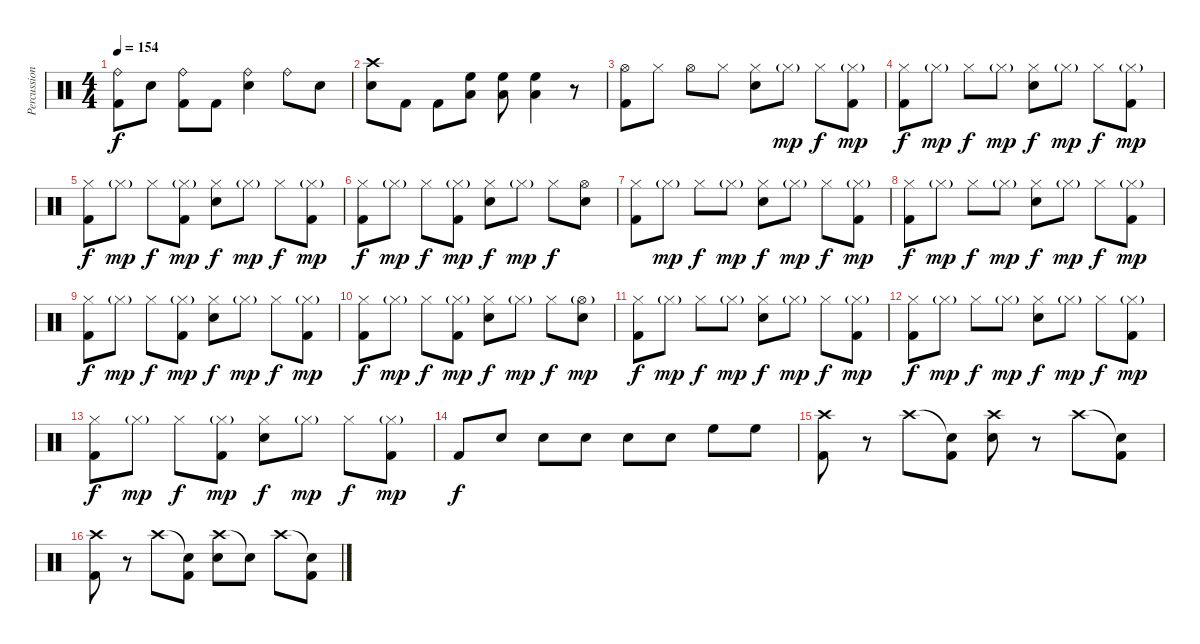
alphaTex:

\track ("Percussion" "Percussion") {instrument percussion}
\staff {score}
\articulation defaults
\ts (4 4)
\tempo 154
\clef neutral
\ks c
("Ride (bell)" "Kick (hit) 2").8{dy f} "Snare (hit) 2".8 ("Ride (bell)" "Kick (hit) 2").8 "Kick (hit) 2".8 ("Ride (bell)" "Snare (hit) 2").4 "Ride (bell)".8 "Snare (hit) 2".8 |
("Crash high (hit)" "Snare (hit) 2").8 "Kick (hit) 2".8 "Kick (hit) 2".8 ("High Floor Tom (hit)" "Low Tom (hit)").8 ("High Floor Tom (hit)" "Low Tom (hit)").8 ("High Floor Tom (hit)" "Low Tom (hit)").4 r.8 |
("Hi-Hat (open)" "Kick (hit) 2").8 "Hi-Hat (closed)".8 "Hi-Hat (open)".8 "Hi-Hat (closed)".8 ("Hi-Hat (closed)" "Snare (hit) 2").8 "Hi-Hat (closed)"{g}.8{dy mp} "Hi-Hat (closed)".8{dy f} ("Hi-Hat (closed)"{g} "Kick (hit) 2").8{dy mp} |
("Hi-Hat (closed)" "Kick (hit) 2").8{dy f} "Hi-Hat (closed)"{g}.8{dy mp} "Hi-Hat (closed)".8{dy f} "Hi-Hat (closed)"{g}.8{dy mp} ("Hi-Hat (closed)" "Snare (hit) 2").8{dy f} "Hi-Hat (closed)"{g}.8{dy mp} "Hi-Hat (closed)".8{dy f} ("Hi-Hat (closed)"{g} "Kick (hit) 2").8{dy mp} |
("Hi-Hat (closed)" "Kick (hit) 2").8{dy f} "Hi-Hat (closed)"{g}.8{dy mp} "Hi-Hat (closed)".8{dy f} ("Hi-Hat (closed)"{g} "Kick (hit) 2").8{dy mp} ("Hi-Hat (closed)" "Snare (hit) 2").8{dy f} "Hi-Hat (closed)"{g}.8{dy mp} "Hi-Hat (closed)".8{dy f} ("Hi-Hat (closed)"{g} "Kick (hit) 2").8{dy mp} |
("Hi-Hat (closed)" "Kick (hit) 2").8{dy f} "Hi-Hat (closed)"{g}.8{dy mp} "Hi-Hat (closed)".8{dy f} ("Hi-Hat (closed)"{g} "Kick (hit) 2").8{dy mp} ("Hi-Hat (closed)" "Snare (hit) 2").8{dy f} "Hi-Hat (closed)"{g}.8{dy mp} "Hi-Hat (closed)".8{dy f} ("Hi-Hat (open)" "Snare (hit) 2").8 |
("Hi-Hat (closed)" "Kick (hit) 2").8 "Hi-Hat (closed)"{g}.8{dy mp} "Hi-Hat (closed)".8{dy f} "Hi-Hat (closed)"{g}.8{dy mp} ("Hi-Hat (closed)" "Snare (hit) 2").8{dy f} "Hi-Hat (closed)"{g}.8{dy mp} "Hi-Hat (closed)".8{dy f} ("Hi-Hat (closed)"{g} "Kick (hit) 2").8{dy mp} |
("Hi-Hat (closed)" "Kick (hit) 2").8{dy f} "Hi-Hat (closed)"{g}.8{dy mp} "Hi-Hat (closed)".8{dy f} "Hi-Hat (closed)"{g}.8{dy mp} ("Hi-Hat (closed)" "Snare (hit) 2").8{dy f} "Hi-Hat (closed)"{g}.8{dy mp} "Hi-Hat (closed)".8{dy f} ("Hi-Hat (closed)"{g} "Kick (hit) 2").8{dy mp} |
("Hi-Hat (closed)" "Kick (hit) 2").8{dy f} "Hi-Hat (closed)"{g}.8{dy mp} "Hi-Hat (closed)".8{dy f} ("Hi-Hat (closed)"{g} "Kick (hit) 2").8{dy mp} ("Hi-Hat (closed)" "Snare (hit) 2").8{dy f} "Hi-Hat (closed)"{g}.8{dy mp} "Hi-Hat (closed)".8{dy f} ("Hi-Hat (closed)"{g} "Kick (hit) 2").8{dy mp} |
("Hi-Hat (closed)" "Kick (hit) 2").8{dy f} "Hi-Hat (closed)"{g}.8{dy mp} "Hi-Hat (closed)".8{dy f} ("Hi-Hat (closed)"{g} "Kick (hit) 2").8{dy mp} ("Hi-Hat (closed)" "Snare (hit) 2").8{dy f} "Hi-Hat (closed)"{g}.8{dy mp} "Hi-Hat (closed)".8{dy f} ("Hi-Hat (open)"{g} "Snare (hit) 2").8{dy mp} |
("Hi-Hat (closed)" "Kick (hit) 2").8{dy f} "Hi-Hat (closed)"{g}.8{dy mp} "Hi-Hat (closed)".8{dy f} "Hi-Hat (closed)"{g}.8{dy mp} ("Hi-Hat (closed)" "Snare (hit) 2").8{dy f} "Hi-Hat (closed)"{g}.8{dy mp} "Hi-Hat (closed)".8{dy f} ("Hi-Hat (closed)"{g} "Kick (hit) 2").8{dy mp} |
("Hi-Hat (closed)" "Kick (hit) 2").8{dy f} "Hi-Hat (closed)"{g}.8{dy mp} "Hi-Hat (closed)".8{dy f} "Hi-Hat (closed)"{g}.8{dy mp} ("Hi-Hat (closed)" "Snare (hit) 2").8{dy f} "Hi-Hat (closed)"{g}.8{dy mp} "Hi-Hat (closed)".8{dy f} ("Hi-Hat (closed)"{g} "Kick (hit) 2").8{dy mp} |
("Hi-Hat (closed)" "Kick (hit) 2").8{dy f} "Hi-Hat (closed)"{g}.8{dy mp} "Hi-Hat (closed)".8{dy f} ("Hi-Hat (closed)"{g} "Kick (hit) 2").8{dy mp} ("Hi-Hat (closed)" "Snare (hit) 2").8{dy f} "Hi-Hat (closed)"{g}.8{dy mp} "Hi-Hat (closed)".8{dy f} ("Hi-Hat (closed)"{g} "Kick (hit) 2").8{dy mp} |
"Kick (hit) 2".8{dy f} "Snare (hit) 2".8 "Snare (hit) 2".8 "Snare (hit) 2".8 "Snare (hit) 2".8 "Snare (hit) 2".8 "High Floor Tom (hit)".8 "High Floor Tom (hit)".8 |
("Crash high (hit)" "Kick (hit) 2").8 r.8 "Crash high (hit)".8 ("Snare (hit)"{t} "Kick (hit) 2").8 ("Crash high (hit)" "Snare (hit) 2").8 r.8 "Crash high (hit)".8 ("Snare (hit)"{t} "Kick (hit) 2").8 |
("Crash high (hit)" "Kick (hit) 2").8 r.8 "Crash high (hit)".8 ("Snare (hit)"{t} "Kick (hit) 2").8 ("Crash high (hit)" "Snare (hit) 2").8 "Snare (hit)"{t}.8 "Crash high (hit)".8 ("Snare (hit)"{t} "Kick (hit) 2").8
